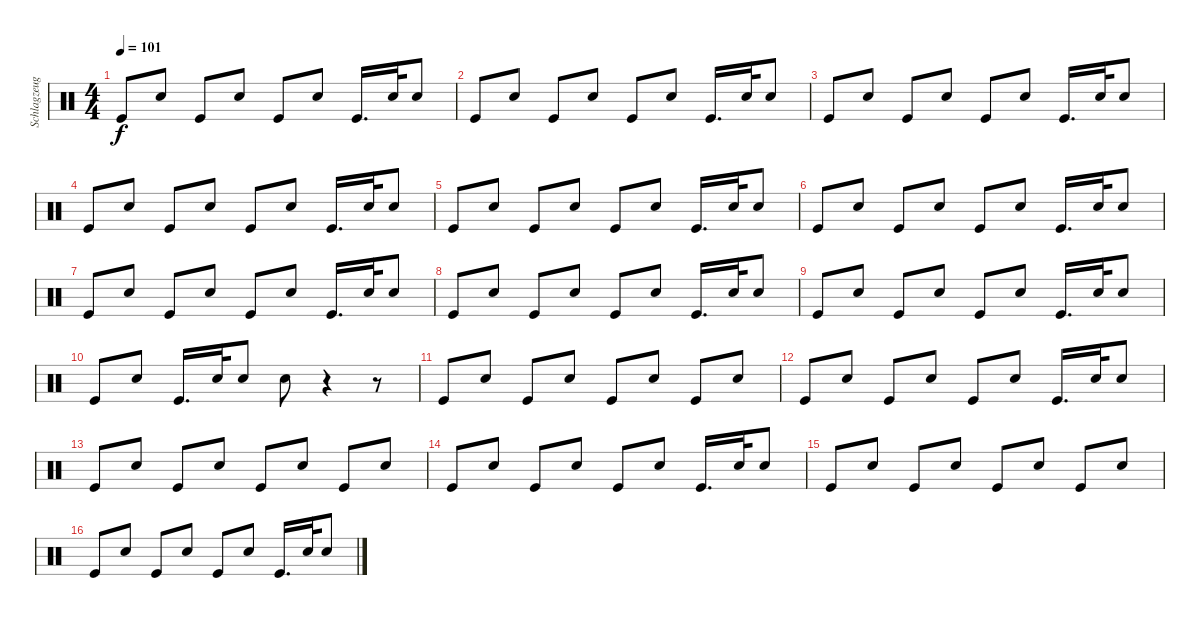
\track ("Schlagzeug" "Schlagzeug") {instrument percussion}
\staff {score}
\articulation defaults
\ts (4 4)
\tempo 101
\clef neutral
\ks c "Kick (hit)".8{dy f} "Snare (hit) 2".8 "Kick (hit)".8 "Snare (hit) 2".8 "Kick (hit)".8 "Snare (hit) 2".8 "Kick (hit)".16{d} "Snare (hit) 2".32 "Snare (hit) 2".8
|
"Kick (hit)".8 "Snare (hit) 2".8 "Kick (hit)".8 "Snare (hit) 2".8 "Kick (hit)".8 "Snare (hit) 2".8 "Kick (hit)".16{d} "Snare (hit) 2".32 "Snare (hit) 2".8 |
"Kick (hit)".8 "Snare (hit) 2".8 "Kick (hit)".8 "Snare (hit) 2".8 "Kick (hit)".8 "Snare (hit) 2".8 "Kick (hit)".16{d} "Snare (hit) 2".32 "Snare (hit) 2".8 |
"Kick (hit)".8 "Snare (hit) 2".8 "Kick (hit)".8 "Snare (hit) 2".8 "Kick (hit)".8 "Snare (hit) 2".8 "Kick (hit)".16{d} "Snare (hit) 2".32 "Snare (hit) 2".8 |
"Kick (hit)".8 "Snare (hit) 2".8 "Kick (hit)".8 "Snare (hit) 2".8 "Kick (hit)".8 "Snare (hit) 2".8 "Kick (hit)".16{d} "Snare (hit) 2".32 "Snare (hit) 2".8 |
"Kick (hit)".8 "Snare (hit) 2".8 "Kick (hit)".8 "Snare (hit) 2".8 "Kick (hit)".8 "Snare (hit) 2".8 "Kick (hit)".16{d} "Snare (hit) 2".32 "Snare (hit) 2".8 |
"Kick (hit)".8 "Snare (hit) 2".8 "Kick (hit)".8 "Snare (hit) 2".8 "Kick (hit)".8 "Snare (hit) 2".8 "Kick (hit)".16{d} "Snare (hit) 2".32 "Snare (hit) 2".8 |
"Kick (hit)".8 "Snare (hit) 2".8 "Kick (hit)".8 "Snare (hit) 2".8 "Kick (hit)".8 "Snare (hit) 2".8 "Kick (hit)".16{d} "Snare (hit) 2".32 "Snare (hit) 2".8 |
"Kick (hit)".8 "Snare (hit) 2".8 "Kick (hit)".8 "Snare (hit) 2".8 "Kick (hit)".8 "Snare (hit) 2".8 "Kick (hit)".16{d} "Snare (hit) 2".32 "Snare (hit) 2".8 |
"Kick (hit)".8 "Snare (hit) 2".8 "Kick (hit)".16{d} "Snare (hit) 2".32 "Snare (hit) 2".8 "Snare (hit) 2".8 r.4 r.8 |
"Kick (hit)".8 "Snare (hit) 2".8 "Kick (hit)".8 "Snare (hit) 2".8 "Kick (hit)".8 "Snare (hit) 2".8 "Kick (hit)".8 "Snare (hit) 2".8 |
"Kick (hit)".8 "Snare (hit) 2".8 "Kick (hit)".8 "Snare (hit) 2".8 "Kick (hit)".8 "Snare (hit) 2".8 "Kick (hit)".16{d} "Snare (hit) 2".32 "Snare (hit) 2".8 |
"Kick (hit)".8 "Snare (hit) 2".8 "Kick (hit)".8 "Snare (hit) 2".8 "Kick (hit)".8 "Snare (hit) 2".8 "Kick (hit)".8 "Snare (hit) 2".8 |
"Kick (hit)".8 "Snare (hit) 2".8 "Kick (hit)".8 "Snare (hit) 2".8 "Kick (hit)".8 "Snare (hit) 2".8 "Kick (hit)".16{d} "Snare (hit) 2".32 "Snare (hit) 2".8 |
"Kick (hit)".8 "Snare (hit) 2".8 "Kick (hit)".8 "Snare (hit) 2".8 "Kick (hit)".8 "Snare (hit) 2".8 "Kick (hit)".8 "Snare (hit) 2".8 |
"Kick (hit)".8 "Snare (hit) 2".8 "Kick (hit)".8 "Snare (hit) 2".8 "Kick (hit)".8 "Snare (hit) 2".8 "Kick (hit)".16{d} "Snare (hit) 2".32 "Snare (hit) 2".8
